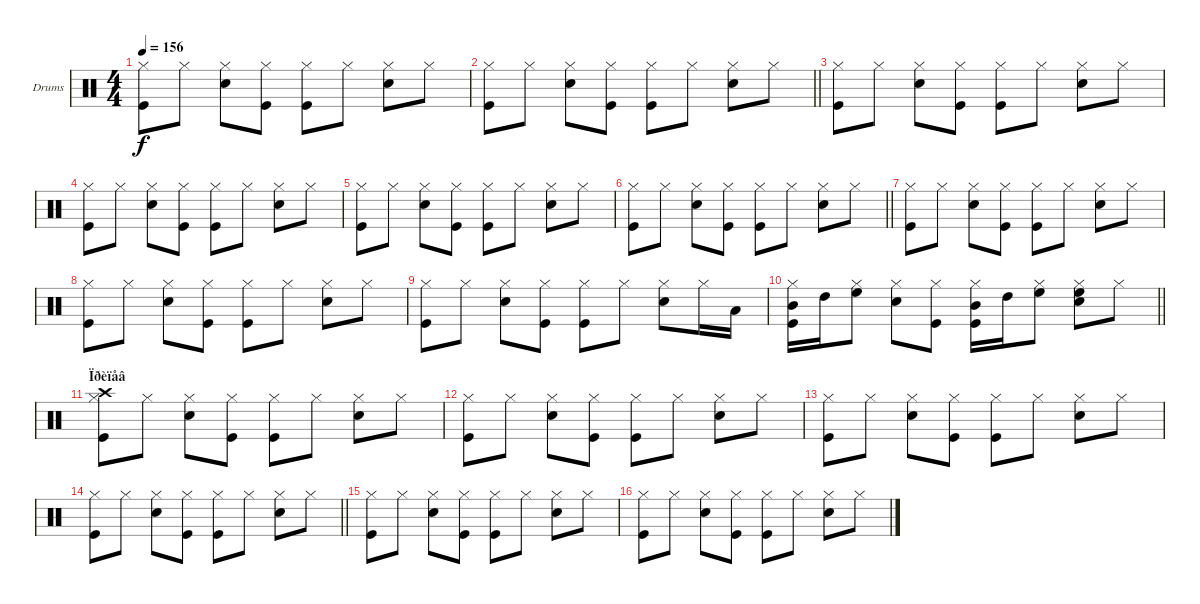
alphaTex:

\bracketExtendMode groupsimilarinstruments
\firstSystemTrackNameOrientation horizontal
\otherSystemsTrackNameOrientation horizontal
\track ("Drumkit" "Drums") {instrument percussion}
\staff {score}
\articulation defaults
\ts (4 4)
\tempo 156
\clef neutral
\ks c
("Hi-Hat (closed)" "Kick (hit)").8{dy f} "Hi-Hat (closed)".8 ("Hi-Hat (closed)" "Snare (hit) 2").8 ("Hi-Hat (closed)" "Kick (hit)").8 ("Hi-Hat (closed)" "Kick (hit)").8 "Hi-Hat (closed)".8 ("Hi-Hat (closed)" "Snare (hit) 2").8 "Hi-Hat (closed)".8 |
\barLineRight lightlight
("Hi-Hat (closed)" "Kick (hit)").8 "Hi-Hat (closed)".8 ("Hi-Hat (closed)" "Snare (hit) 2").8 ("Hi-Hat (closed)" "Kick (hit)").8 ("Hi-Hat (closed)" "Kick (hit)").8 "Hi-Hat (closed)".8 ("Hi-Hat (closed)" "Snare (hit) 2").8 "Hi-Hat (closed)".8 |
("Hi-Hat (closed)" "Kick (hit)").8 "Hi-Hat (closed)".8 ("Hi-Hat (closed)" "Snare (hit) 2").8 ("Hi-Hat (closed)" "Kick (hit)").8 ("Hi-Hat (closed)" "Kick (hit)").8 "Hi-Hat (closed)".8 ("Hi-Hat (closed)" "Snare (hit) 2").8 "Hi-Hat (closed)".8 |
("Hi-Hat (closed)" "Kick (hit)").8 "Hi-Hat (closed)".8 ("Hi-Hat (closed)" "Snare (hit) 2").8 ("Hi-Hat (closed)" "Kick (hit)").8 ("Hi-Hat (closed)" "Kick (hit)").8 "Hi-Hat (closed)".8 ("Hi-Hat (closed)" "Snare (hit) 2").8 "Hi-Hat (closed)".8 |
("Hi-Hat (closed)" "Kick (hit)").8 "Hi-Hat (closed)".8 ("Hi-Hat (closed)" "Snare (hit) 2").8 ("Hi-Hat (closed)" "Kick (hit)").8 ("Hi-Hat (closed)" "Kick (hit)").8 "Hi-Hat (closed)".8 ("Hi-Hat (closed)" "Snare (hit) 2").8 "Hi-Hat (closed)".8 |
\barLineRight lightlight
("Hi-Hat (closed)" "Kick (hit)").8 "Hi-Hat (closed)".8 ("Hi-Hat (closed)" "Snare (hit) 2").8 ("Hi-Hat (closed)" "Kick (hit)").8 ("Hi-Hat (closed)" "Kick (hit)").8 "Hi-Hat (closed)".8 ("Hi-Hat (closed)" "Snare (hit) 2").8 "Hi-Hat (closed)".8 |
("Hi-Hat (closed)" "Kick (hit)").8 "Hi-Hat (closed)".8 ("Hi-Hat (closed)" "Snare (hit) 2").8 ("Hi-Hat (closed)" "Kick (hit)").8 ("Hi-Hat (closed)" "Kick (hit)").8 "Hi-Hat (closed)".8 ("Hi-Hat (closed)" "Snare (hit) 2").8 "Hi-Hat (closed)".8 |
("Hi-Hat (closed)" "Kick (hit)").8 "Hi-Hat (closed)".8 ("Hi-Hat (closed)" "Snare (hit) 2").8 ("Hi-Hat (closed)" "Kick (hit)").8 ("Hi-Hat (closed)" "Kick (hit)").8 "Hi-Hat (closed)".8 ("Hi-Hat (closed)" "Snare (hit) 2").8 "Hi-Hat (closed)".8 |
("Hi-Hat (closed)" "Kick (hit)").8 "Hi-Hat (closed)".8 ("Hi-Hat (closed)" "Snare (hit) 2").8 ("Hi-Hat (closed)" "Kick (hit)").8 ("Hi-Hat (closed)" "Kick (hit)").8 "Hi-Hat (closed)".8 ("Hi-Hat (closed)" "Snare (hit) 2").8 "Hi-Hat (closed)".16 "Low Tom (hit)".16 |
\barLineRight lightlight
("Hi-Hat (closed)" "Kick (hit)" "Mid Tom (hit)").16 "High Tom (hit)".16 ("Hi-Hat (closed)" "High Floor Tom (hit)").8 ("Hi-Hat (closed)" "Snare (hit) 2").8 ("Hi-Hat (closed)" "Kick (hit)").8 ("Hi-Hat (closed)" "Kick (hit)" "Mid Tom (hit)").16 "High Tom (hit)".16 ("Hi-Hat (closed)" "High Floor Tom (hit)").8 ("Hi-Hat (closed)" "Snare (hit) 2" "High Floor Tom (hit)").8 "Hi-Hat (closed)".8 |
\section ("" "Ïðèïåâ")
("Hi-Hat (closed)" "Kick (hit)" "Crash high (hit)").8 "Hi-Hat (closed)".8 ("Hi-Hat (closed)" "Snare (hit) 2").8 ("Hi-Hat (closed)" "Kick (hit)").8 ("Hi-Hat (closed)" "Kick (hit)").8 "Hi-Hat (closed)".8 ("Hi-Hat (closed)" "Snare (hit) 2").8 "Hi-Hat (closed)".8 |
("Hi-Hat (closed)" "Kick (hit)").8 "Hi-Hat (closed)".8 ("Hi-Hat (closed)" "Snare (hit) 2").8 ("Hi-Hat (closed)" "Kick (hit)").8 ("Hi-Hat (closed)" "Kick (hit)").8 "Hi-Hat (closed)".8 ("Hi-Hat (closed)" "Snare (hit) 2").8 "Hi-Hat (closed)".8 |
("Hi-Hat (closed)" "Kick (hit)").8 "Hi-Hat (closed)".8 ("Hi-Hat (closed)" "Snare (hit) 2").8 ("Hi-Hat (closed)" "Kick (hit)").8 ("Hi-Hat (closed)" "Kick (hit)").8 "Hi-Hat (closed)".8 ("Hi-Hat (closed)" "Snare (hit) 2").8 "Hi-Hat (closed)".8 |
\barLineRight lightlight
("Hi-Hat (closed)" "Kick (hit)").8 "Hi-Hat (closed)".8 ("Hi-Hat (closed)" "Snare (hit) 2").8 ("Hi-Hat (closed)" "Kick (hit)").8 ("Hi-Hat (closed)" "Kick (hit)").8 "Hi-Hat (closed)".8 ("Hi-Hat (closed)" "Snare (hit) 2").8 "Hi-Hat (closed)".8 |
("Hi-Hat (closed)" "Kick (hit)").8 "Hi-Hat (closed)".8 ("Hi-Hat (closed)" "Snare (hit) 2").8 ("Hi-Hat (closed)" "Kick (hit)").8 ("Hi-Hat (closed)" "Kick (hit)").8 "Hi-Hat (closed)".8 ("Hi-Hat (closed)" "Snare (hit) 2").8 "Hi-Hat (closed)".8 |
("Hi-Hat (closed)" "Kick (hit)").8 "Hi-Hat (closed)".8 ("Hi-Hat (closed)" "Snare (hit) 2").8 ("Hi-Hat (closed)" "Kick (hit)").8 ("Hi-Hat (closed)" "Kick (hit)").8 "Hi-Hat (closed)".8 ("Hi-Hat (closed)" "Snare (hit) 2").8 "Hi-Hat (closed)".8
